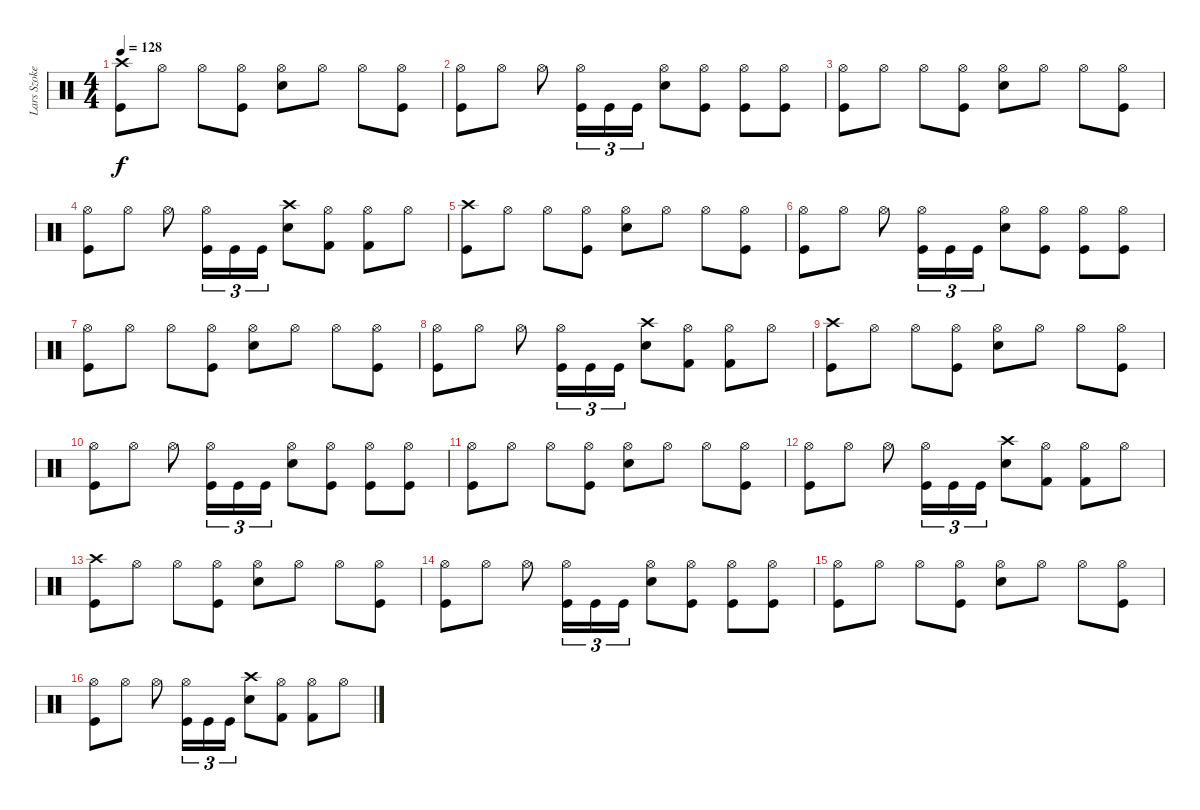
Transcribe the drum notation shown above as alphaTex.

\track ("Lars Szoke" "Lars Szoke") {instrument percussion}
\staff {score}
\articulation defaults
\ts (4 4)
\tempo 128
\clef neutral
\ks c
("Crash high (hit)" "Kick (hit)").8{dy f} "Hi-Hat (open)".8 "Hi-Hat (open)".8 ("Hi-Hat (open)" "Kick (hit)").8 ("Hi-Hat (open)" "Snare (hit) 2").8 "Hi-Hat (open)".8 "Hi-Hat (open)".8 ("Hi-Hat (open)" "Kick (hit)").8 |
("Hi-Hat (open)" "Kick (hit)").8 "Hi-Hat (open)".8 "Hi-Hat (open)".8 ("Hi-Hat (open)" "Kick (hit)").16{tu (3 2)} "Kick (hit)".16{tu (3 2)} "Kick (hit)".16{tu (3 2)} ("Hi-Hat (open)" "Snare (hit) 2").8 ("Hi-Hat (open)" "Kick (hit)").8 ("Hi-Hat (open)" "Kick (hit)").8 ("Hi-Hat (open)" "Kick (hit)").8 |
("Hi-Hat (open)" "Kick (hit)").8 "Hi-Hat (open)".8 "Hi-Hat (open)".8 ("Hi-Hat (open)" "Kick (hit)").8 ("Hi-Hat (open)" "Snare (hit) 2").8 "Hi-Hat (open)".8 "Hi-Hat (open)".8 ("Hi-Hat (open)" "Kick (hit)").8 |
("Hi-Hat (open)" "Kick (hit)").8 "Hi-Hat (open)".8 "Hi-Hat (open)".8 ("Hi-Hat (open)" "Kick (hit)").16{tu (3 2)} "Kick (hit)".16{tu (3 2)} "Kick (hit)".16{tu (3 2)} ("Crash high (hit)" "Snare (hit) 2").8 ("Hi-Hat (open)" "Kick (hit) 2").8 ("Hi-Hat (open)" "Kick (hit) 2").8 "Hi-Hat (open)".8 |
("Crash high (hit)" "Kick (hit)").8 "Hi-Hat (open)".8 "Hi-Hat (open)".8 ("Hi-Hat (open)" "Kick (hit)").8 ("Hi-Hat (open)" "Snare (hit) 2").8 "Hi-Hat (open)".8 "Hi-Hat (open)".8 ("Hi-Hat (open)" "Kick (hit)").8 |
("Hi-Hat (open)" "Kick (hit)").8 "Hi-Hat (open)".8 "Hi-Hat (open)".8 ("Hi-Hat (open)" "Kick (hit)").16{tu (3 2)} "Kick (hit)".16{tu (3 2)} "Kick (hit)".16{tu (3 2)} ("Hi-Hat (open)" "Snare (hit) 2").8 ("Hi-Hat (open)" "Kick (hit)").8 ("Hi-Hat (open)" "Kick (hit)").8 ("Hi-Hat (open)" "Kick (hit)").8 |
("Hi-Hat (open)" "Kick (hit)").8 "Hi-Hat (open)".8 "Hi-Hat (open)".8 ("Hi-Hat (open)" "Kick (hit)").8 ("Hi-Hat (open)" "Snare (hit) 2").8 "Hi-Hat (open)".8 "Hi-Hat (open)".8 ("Hi-Hat (open)" "Kick (hit)").8 |
("Hi-Hat (open)" "Kick (hit)").8 "Hi-Hat (open)".8 "Hi-Hat (open)".8 ("Hi-Hat (open)" "Kick (hit)").16{tu (3 2)} "Kick (hit)".16{tu (3 2)} "Kick (hit)".16{tu (3 2)} ("Crash high (hit)" "Snare (hit) 2").8 ("Hi-Hat (open)" "Kick (hit) 2").8 ("Hi-Hat (open)" "Kick (hit) 2").8 "Hi-Hat (open)".8 |
("Crash high (hit)" "Kick (hit)").8 "Hi-Hat (open)".8 "Hi-Hat (open)".8 ("Hi-Hat (open)" "Kick (hit)").8 ("Hi-Hat (open)" "Snare (hit) 2").8 "Hi-Hat (open)".8 "Hi-Hat (open)".8 ("Hi-Hat (open)" "Kick (hit)").8 |
("Hi-Hat (open)" "Kick (hit)").8 "Hi-Hat (open)".8 "Hi-Hat (open)".8 ("Hi-Hat (open)" "Kick (hit)").16{tu (3 2)} "Kick (hit)".16{tu (3 2)} "Kick (hit)".16{tu (3 2)} ("Hi-Hat (open)" "Snare (hit) 2").8 ("Hi-Hat (open)" "Kick (hit)").8 ("Hi-Hat (open)" "Kick (hit)").8 ("Hi-Hat (open)" "Kick (hit)").8 |
("Hi-Hat (open)" "Kick (hit)").8 "Hi-Hat (open)".8 "Hi-Hat (open)".8 ("Hi-Hat (open)" "Kick (hit)").8 ("Hi-Hat (open)" "Snare (hit) 2").8 "Hi-Hat (open)".8 "Hi-Hat (open)".8 ("Hi-Hat (open)" "Kick (hit)").8 |
("Hi-Hat (open)" "Kick (hit)").8 "Hi-Hat (open)".8 "Hi-Hat (open)".8 ("Hi-Hat (open)" "Kick (hit)").16{tu (3 2)} "Kick (hit)".16{tu (3 2)} "Kick (hit)".16{tu (3 2)} ("Crash high (hit)" "Snare (hit) 2").8 ("Hi-Hat (open)" "Kick (hit) 2").8 ("Hi-Hat (open)" "Kick (hit) 2").8 "Hi-Hat (open)".8 |
("Crash high (hit)" "Kick (hit)").8 "Hi-Hat (open)".8 "Hi-Hat (open)".8 ("Hi-Hat (open)" "Kick (hit)").8 ("Hi-Hat (open)" "Snare (hit) 2").8 "Hi-Hat (open)".8 "Hi-Hat (open)".8 ("Hi-Hat (open)" "Kick (hit)").8 |
("Hi-Hat (open)" "Kick (hit)").8 "Hi-Hat (open)".8 "Hi-Hat (open)".8 ("Hi-Hat (open)" "Kick (hit)").16{tu (3 2)} "Kick (hit)".16{tu (3 2)} "Kick (hit)".16{tu (3 2)} ("Hi-Hat (open)" "Snare (hit) 2").8 ("Hi-Hat (open)" "Kick (hit)").8 ("Hi-Hat (open)" "Kick (hit)").8 ("Hi-Hat (open)" "Kick (hit)").8 |
("Hi-Hat (open)" "Kick (hit)").8 "Hi-Hat (open)".8 "Hi-Hat (open)".8 ("Hi-Hat (open)" "Kick (hit)").8 ("Hi-Hat (open)" "Snare (hit) 2").8 "Hi-Hat (open)".8 "Hi-Hat (open)".8 ("Hi-Hat (open)" "Kick (hit)").8 |
("Hi-Hat (open)" "Kick (hit)").8 "Hi-Hat (open)".8 "Hi-Hat (open)".8 ("Hi-Hat (open)" "Kick (hit)").16{tu (3 2)} "Kick (hit)".16{tu (3 2)} "Kick (hit)".16{tu (3 2)} ("Crash high (hit)" "Snare (hit) 2").8 ("Hi-Hat (open)" "Kick (hit) 2").8 ("Hi-Hat (open)" "Kick (hit) 2").8 "Hi-Hat (open)".8
